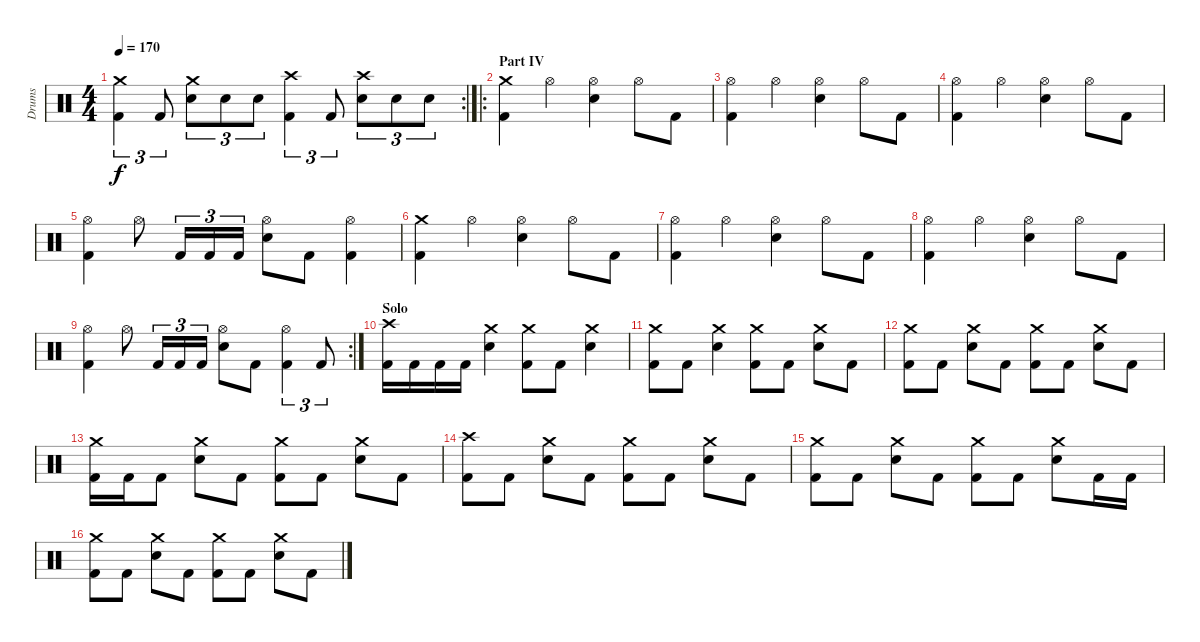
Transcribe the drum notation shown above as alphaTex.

\track ("Drums" "Drums") {instrument percussion}
\staff {score}
\articulation defaults
\rc 2
\ts (4 4)
\tempo 170
\clef neutral
\ks c
("Kick (hit) 2" "Crash medium (hit)").4{tu (3 2) dy f} "Kick (hit) 2".8{tu (3 2)} ("Electric Snare (hit)" "Crash medium (hit)").8{tu (3 2)} "Electric Snare (hit)".8{tu (3 2)} "Electric Snare (hit)".8{tu (3 2)} ("Kick (hit) 2" "Crash high (hit)").4{tu (3 2)} "Kick (hit) 2".8{tu (3 2)} ("Electric Snare (hit)" "Crash high (hit)").8{tu (3 2)} "Electric Snare (hit)".8{tu (3 2)} "Electric Snare (hit)".8{tu (3 2)} |
\ro
\section ("" "Part IV")
("Kick (hit) 2" "Crash medium (hit)").4 "Hi-Hat (open)".4 ("Electric Snare (hit)" "Hi-Hat (open)").4 "Hi-Hat (open)".8 "Kick (hit) 2".8 |
("Kick (hit) 2" "Hi-Hat (open)").4 "Hi-Hat (open)".4 ("Electric Snare (hit)" "Hi-Hat (open)").4 "Hi-Hat (open)".8 "Kick (hit) 2".8 |
("Kick (hit) 2" "Hi-Hat (open)").4 "Hi-Hat (open)".4 ("Electric Snare (hit)" "Hi-Hat (open)").4 "Hi-Hat (open)".8 "Kick (hit) 2".8 |
("Kick (hit) 2" "Hi-Hat (open)").4 "Hi-Hat (open)".8 "Kick (hit) 2".16{tu (3 2)} "Kick (hit) 2".16{tu (3 2)} "Kick (hit) 2".16{tu (3 2)} ("Electric Snare (hit)" "Hi-Hat (open)").8 "Kick (hit) 2".8 ("Kick (hit) 2" "Hi-Hat (open)").4 |
("Kick (hit) 2" "Crash medium (hit)").4 "Hi-Hat (open)".4 ("Electric Snare (hit)" "Hi-Hat (open)").4 "Hi-Hat (open)".8 "Kick (hit) 2".8 |
("Kick (hit) 2" "Hi-Hat (open)").4 "Hi-Hat (open)".4 ("Electric Snare (hit)" "Hi-Hat (open)").4 "Hi-Hat (open)".8 "Kick (hit) 2".8 |
("Kick (hit) 2" "Hi-Hat (open)").4 "Hi-Hat (open)".4 ("Electric Snare (hit)" "Hi-Hat (open)").4 "Hi-Hat (open)".8 "Kick (hit) 2".8 |
\rc 2
("Kick (hit) 2" "Hi-Hat (open)").4 "Hi-Hat (open)".8 "Kick (hit) 2".16{tu (3 2)} "Kick (hit) 2".16{tu (3 2)} "Kick (hit) 2".16{tu (3 2)} ("Electric Snare (hit)" "Hi-Hat (open)").8 "Kick (hit) 2".8 ("Kick (hit) 2" "Hi-Hat (open)").4{tu (3 2)} "Kick (hit) 2".8{tu (3 2)} |
\section ("" "Solo")
("Kick (hit) 2" "Crash high (hit)").16 "Kick (hit) 2".16 "Kick (hit) 2".16 "Kick (hit) 2".16 ("Electric Snare (hit)" "Crash medium (hit)").4 ("Kick (hit) 2" "Crash medium (hit)").8 "Kick (hit) 2".8 ("Electric Snare (hit)" "Crash medium (hit)").4 |
("Kick (hit) 2" "Crash medium (hit)").8 "Kick (hit) 2".8 ("Electric Snare (hit)" "Crash medium (hit)").4 ("Kick (hit) 2" "Crash medium (hit)").8 "Kick (hit) 2".8 ("Electric Snare (hit)" "Crash medium (hit)").8 "Kick (hit) 2".8 |
("Kick (hit) 2" "Crash medium (hit)").8 "Kick (hit) 2".8 ("Electric Snare (hit)" "Crash medium (hit)").8 "Kick (hit) 2".8 ("Kick (hit) 2" "Crash medium (hit)").8 "Kick (hit) 2".8 ("Electric Snare (hit)" "Crash medium (hit)").8 "Kick (hit) 2".8 |
("Kick (hit) 2" "Crash medium (hit)").16 "Kick (hit) 2".16 "Kick (hit) 2".8 ("Electric Snare (hit)" "Crash medium (hit)").8 "Kick (hit) 2".8 ("Kick (hit) 2" "Crash medium (hit)").8 "Kick (hit) 2".8 ("Electric Snare (hit)" "Crash medium (hit)").8 "Kick (hit) 2".8 |
("Kick (hit) 2" "Crash high (hit)").8 "Kick (hit) 2".8 ("Electric Snare (hit)" "Crash medium (hit)").8 "Kick (hit) 2".8 ("Kick (hit) 2" "Crash medium (hit)").8 "Kick (hit) 2".8 ("Electric Snare (hit)" "Crash medium (hit)").8 "Kick (hit) 2".8 |
("Kick (hit) 2" "Crash medium (hit)").8 "Kick (hit) 2".8 ("Electric Snare (hit)" "Crash medium (hit)").8 "Kick (hit) 2".8 ("Kick (hit) 2" "Crash medium (hit)").8 "Kick (hit) 2".8 ("Electric Snare (hit)" "Crash medium (hit)").8 "Kick (hit) 2".16 "Kick (hit) 2".16 |
("Kick (hit) 2" "Crash medium (hit)").8 "Kick (hit) 2".8 ("Electric Snare (hit)" "Crash medium (hit)").8 "Kick (hit) 2".8 ("Kick (hit) 2" "Crash medium (hit)").8 "Kick (hit) 2".8 ("Electric Snare (hit)" "Crash medium (hit)").8 "Kick (hit) 2".8
